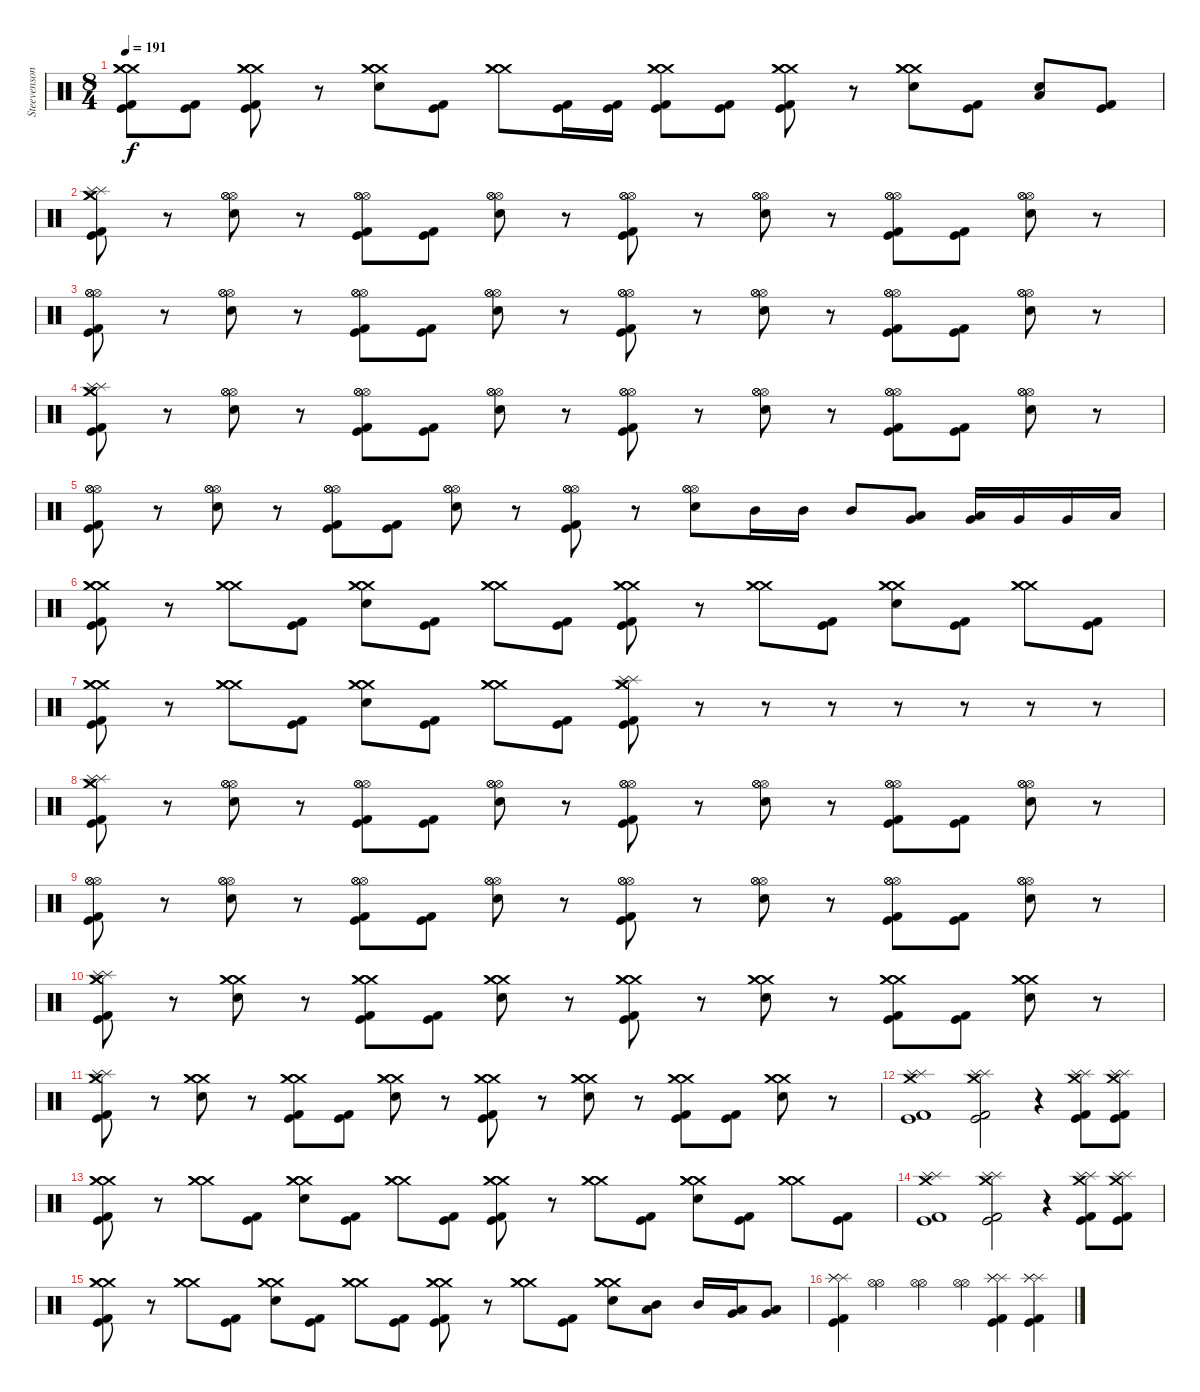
\track ("Steevenson" "Steevenson") {instrument percussion}
\staff {score}
\articulation defaults
\ts (8 4)
\tempo 191
\clef neutral
\ks c
("Crash medium (hit)" "Crash medium (hit)" "Crash medium (hit)" "Kick (hit)" "Kick (hit) 2").8{dy f} ("Kick (hit)" "Kick (hit) 2").8 ("Crash medium (hit)" "Crash medium (hit)" "Crash medium (hit)" "Kick (hit)" "Kick (hit) 2").8 r.8 ("Crash medium (hit)" "Crash medium (hit)" "Crash medium (hit)" "Snare (hit) 2").8 ("Kick (hit)" "Kick (hit) 2").8 ("Crash medium (hit)" "Crash medium (hit)" "Crash medium (hit)").8 ("Kick (hit)" "Kick (hit) 2").16 ("Kick (hit)" "Kick (hit) 2").16 ("Crash medium (hit)" "Crash medium (hit)" "Crash medium (hit)" "Kick (hit)" "Kick (hit) 2").8 ("Kick (hit)" "Kick (hit) 2").8 ("Crash medium (hit)" "Crash medium (hit)" "Crash medium (hit)" "Kick (hit)" "Kick (hit) 2").8 r.8 ("Crash medium (hit)" "Crash medium (hit)" "Crash medium (hit)" "Snare (hit) 2").8 ("Kick (hit)" "Kick (hit) 2").8 ("Low Tom (hit)" "Snare (hit) 2").8 ("Kick (hit)" "Kick (hit) 2").8 |
("Splash (hit)" "Crash medium (hit)" "Crash medium (hit)" "Splash (hit)" "Kick (hit)" "Kick (hit) 2").8 r.8 ("Hi-Hat (open)" "Hi-Hat (open)" "Hi-Hat (open)" "Snare (hit) 2").8 r.8 ("Hi-Hat (open)" "Hi-Hat (open)" "Hi-Hat (open)" "Kick (hit)" "Kick (hit) 2").8 ("Kick (hit)" "Kick (hit) 2").8 ("Hi-Hat (open)" "Hi-Hat (open)" "Hi-Hat (open)" "Snare (hit) 2").8 r.8 ("Hi-Hat (open)" "Hi-Hat (open)" "Hi-Hat (open)" "Kick (hit)" "Kick (hit) 2").8 r.8 ("Hi-Hat (open)" "Hi-Hat (open)" "Hi-Hat (open)" "Snare (hit) 2").8 r.8 ("Hi-Hat (open)" "Hi-Hat (open)" "Hi-Hat (open)" "Kick (hit)" "Kick (hit) 2").8 ("Kick (hit)" "Kick (hit) 2").8 ("Hi-Hat (open)" "Hi-Hat (open)" "Hi-Hat (open)" "Snare (hit) 2").8 r.8 |
("Hi-Hat (open)" "Hi-Hat (open)" "Hi-Hat (open)" "Kick (hit)" "Kick (hit) 2").8 r.8 ("Hi-Hat (open)" "Hi-Hat (open)" "Hi-Hat (open)" "Snare (hit) 2").8 r.8 ("Hi-Hat (open)" "Hi-Hat (open)" "Hi-Hat (open)" "Kick (hit)" "Kick (hit) 2").8 ("Kick (hit)" "Kick (hit) 2").8 ("Hi-Hat (open)" "Hi-Hat (open)" "Hi-Hat (open)" "Snare (hit) 2").8 r.8 ("Hi-Hat (open)" "Hi-Hat (open)" "Hi-Hat (open)" "Kick (hit)" "Kick (hit) 2").8 r.8 ("Hi-Hat (open)" "Hi-Hat (open)" "Hi-Hat (open)" "Snare (hit) 2").8 r.8 ("Hi-Hat (open)" "Hi-Hat (open)" "Hi-Hat (open)" "Kick (hit)" "Kick (hit) 2").8 ("Kick (hit)" "Kick (hit) 2").8 ("Hi-Hat (open)" "Hi-Hat (open)" "Hi-Hat (open)" "Snare (hit) 2").8 r.8 |
("Splash (hit)" "Crash medium (hit)" "Crash medium (hit)" "Splash (hit)" "Kick (hit)" "Kick (hit) 2").8 r.8 ("Hi-Hat (open)" "Hi-Hat (open)" "Hi-Hat (open)" "Snare (hit) 2").8 r.8 ("Hi-Hat (open)" "Hi-Hat (open)" "Hi-Hat (open)" "Kick (hit)" "Kick (hit) 2").8 ("Kick (hit)" "Kick (hit) 2").8 ("Hi-Hat (open)" "Hi-Hat (open)" "Hi-Hat (open)" "Snare (hit) 2").8 r.8 ("Hi-Hat (open)" "Hi-Hat (open)" "Hi-Hat (open)" "Kick (hit)" "Kick (hit) 2").8 r.8 ("Hi-Hat (open)" "Hi-Hat (open)" "Hi-Hat (open)" "Snare (hit) 2").8 r.8 ("Hi-Hat (open)" "Hi-Hat (open)" "Hi-Hat (open)" "Kick (hit)" "Kick (hit) 2").8 ("Kick (hit)" "Kick (hit) 2").8 ("Hi-Hat (open)" "Hi-Hat (open)" "Hi-Hat (open)" "Snare (hit) 2").8 r.8 |
("Hi-Hat (open)" "Hi-Hat (open)" "Hi-Hat (open)" "Kick (hit)" "Kick (hit) 2").8 r.8 ("Hi-Hat (open)" "Hi-Hat (open)" "Hi-Hat (open)" "Snare (hit) 2").8 r.8 ("Hi-Hat (open)" "Hi-Hat (open)" "Hi-Hat (open)" "Kick (hit)" "Kick (hit) 2").8 ("Kick (hit)" "Kick (hit) 2").8 ("Hi-Hat (open)" "Hi-Hat (open)" "Hi-Hat (open)" "Snare (hit) 2").8 r.8 ("Hi-Hat (open)" "Hi-Hat (open)" "Hi-Hat (open)" "Kick (hit)" "Kick (hit) 2").8 r.8 ("Hi-Hat (open)" "Hi-Hat (open)" "Hi-Hat (open)" "Snare (hit) 2").8 "Mid Tom (hit)".16 "Mid Tom (hit)".16 "Mid Tom (hit)".8 ("Low Tom (hit)" "Very Low Tom (hit)").8 ("Very Low Tom (hit)" "Low Tom (hit)").16 "Very Low Tom (hit)".16 "Very Low Tom (hit)".16 "Low Floor Tom (hit)".16 |
("Crash medium (hit)" "Crash medium (hit)" "Crash medium (hit)" "Kick (hit)" "Kick (hit) 2").8 r.8 ("Crash medium (hit)" "Crash medium (hit)" "Crash medium (hit)").8 ("Kick (hit)" "Kick (hit) 2").8 ("Crash medium (hit)" "Crash medium (hit)" "Crash medium (hit)" "Snare (hit) 2").8 ("Kick (hit)" "Kick (hit) 2").8 ("Crash medium (hit)" "Crash medium (hit)" "Crash medium (hit)").8 ("Kick (hit)" "Kick (hit) 2").8 ("Crash medium (hit)" "Crash medium (hit)" "Crash medium (hit)" "Kick (hit)" "Kick (hit) 2").8 r.8 ("Crash medium (hit)" "Crash medium (hit)" "Crash medium (hit)").8 ("Kick (hit)" "Kick (hit) 2").8 ("Crash medium (hit)" "Crash medium (hit)" "Crash medium (hit)" "Snare (hit) 2").8 ("Kick (hit)" "Kick (hit) 2").8 ("Crash medium (hit)" "Crash medium (hit)" "Crash medium (hit)").8 ("Kick (hit)" "Kick (hit) 2").8 |
("Crash medium (hit)" "Crash medium (hit)" "Crash medium (hit)" "Kick (hit)" "Kick (hit) 2").8 r.8 ("Crash medium (hit)" "Crash medium (hit)" "Crash medium (hit)").8 ("Kick (hit)" "Kick (hit) 2").8 ("Crash medium (hit)" "Crash medium (hit)" "Crash medium (hit)" "Snare (hit) 2").8 ("Kick (hit)" "Kick (hit) 2").8 ("Crash medium (hit)" "Crash medium (hit)" "Crash medium (hit)").8 ("Kick (hit)" "Kick (hit) 2").8 ("Crash medium (hit)" "Crash medium (hit)" "Splash (hit)" "Splash (hit)" "Kick (hit)" "Kick (hit) 2").8 r.8 r.8 r.8 r.8 r.8 r.8 r.8 |
("Splash (hit)" "Crash medium (hit)" "Crash medium (hit)" "Splash (hit)" "Kick (hit)" "Kick (hit) 2").8 r.8 ("Hi-Hat (open)" "Hi-Hat (open)" "Hi-Hat (open)" "Snare (hit) 2").8 r.8 ("Hi-Hat (open)" "Hi-Hat (open)" "Hi-Hat (open)" "Kick (hit)" "Kick (hit) 2").8 ("Kick (hit)" "Kick (hit) 2").8 ("Hi-Hat (open)" "Hi-Hat (open)" "Hi-Hat (open)" "Snare (hit) 2").8 r.8 ("Hi-Hat (open)" "Hi-Hat (open)" "Hi-Hat (open)" "Kick (hit)" "Kick (hit) 2").8 r.8 ("Hi-Hat (open)" "Hi-Hat (open)" "Hi-Hat (open)" "Snare (hit) 2").8 r.8 ("Hi-Hat (open)" "Hi-Hat (open)" "Hi-Hat (open)" "Kick (hit)" "Kick (hit) 2").8 ("Kick (hit)" "Kick (hit) 2").8 ("Hi-Hat (open)" "Hi-Hat (open)" "Hi-Hat (open)" "Snare (hit) 2").8 r.8 |
("Hi-Hat (open)" "Hi-Hat (open)" "Hi-Hat (open)" "Kick (hit)" "Kick (hit) 2").8 r.8 ("Hi-Hat (open)" "Hi-Hat (open)" "Hi-Hat (open)" "Snare (hit) 2").8 r.8 ("Hi-Hat (open)" "Hi-Hat (open)" "Hi-Hat (open)" "Kick (hit)" "Kick (hit) 2").8 ("Kick (hit)" "Kick (hit) 2").8 ("Hi-Hat (open)" "Hi-Hat (open)" "Hi-Hat (open)" "Snare (hit) 2").8 r.8 ("Hi-Hat (open)" "Hi-Hat (open)" "Hi-Hat (open)" "Kick (hit)" "Kick (hit) 2").8 r.8 ("Hi-Hat (open)" "Hi-Hat (open)" "Hi-Hat (open)" "Snare (hit) 2").8 r.8 ("Hi-Hat (open)" "Hi-Hat (open)" "Hi-Hat (open)" "Kick (hit)" "Kick (hit) 2").8 ("Kick (hit)" "Kick (hit) 2").8 ("Hi-Hat (open)" "Hi-Hat (open)" "Hi-Hat (open)" "Snare (hit) 2").8 r.8 |
("Splash (hit)" "Crash medium (hit)" "Crash medium (hit)" "Splash (hit)" "Kick (hit)" "Kick (hit) 2").8 r.8 ("Crash medium (hit)" "Crash medium (hit)" "Crash medium (hit)" "Snare (hit) 2").8 r.8 ("Crash medium (hit)" "Crash medium (hit)" "Crash medium (hit)" "Kick (hit)" "Kick (hit) 2").8 ("Kick (hit)" "Kick (hit) 2").8 ("Crash medium (hit)" "Crash medium (hit)" "Crash medium (hit)" "Snare (hit) 2").8 r.8 ("Crash medium (hit)" "Crash medium (hit)" "Crash medium (hit)" "Kick (hit)" "Kick (hit) 2").8 r.8 ("Crash medium (hit)" "Crash medium (hit)" "Crash medium (hit)" "Snare (hit) 2").8 r.8 ("Crash medium (hit)" "Crash medium (hit)" "Crash medium (hit)" "Kick (hit)" "Kick (hit) 2").8 ("Kick (hit)" "Kick (hit) 2").8 ("Crash medium (hit)" "Crash medium (hit)" "Crash medium (hit)" "Snare (hit) 2").8 r.8 |
("Splash (hit)" "Crash medium (hit)" "Crash medium (hit)" "Splash (hit)" "Kick (hit)" "Kick (hit) 2").8 r.8 ("Crash medium (hit)" "Crash medium (hit)" "Crash medium (hit)" "Snare (hit) 2").8 r.8 ("Crash medium (hit)" "Crash medium (hit)" "Crash medium (hit)" "Kick (hit)" "Kick (hit) 2").8 ("Kick (hit)" "Kick (hit) 2").8 ("Crash medium (hit)" "Crash medium (hit)" "Crash medium (hit)" "Snare (hit) 2").8 r.8 ("Crash medium (hit)" "Crash medium (hit)" "Crash medium (hit)" "Kick (hit)" "Kick (hit) 2").8 r.8 ("Crash medium (hit)" "Crash medium (hit)" "Crash medium (hit)" "Snare (hit) 2").8 r.8 ("Crash medium (hit)" "Crash medium (hit)" "Crash medium (hit)" "Kick (hit)" "Kick (hit) 2").8 ("Kick (hit)" "Kick (hit) 2").8 ("Crash medium (hit)" "Crash medium (hit)" "Crash medium (hit)" "Snare (hit) 2").8 r.8 |
("Crash medium (hit)" "Splash (hit)" "Splash (hit)" "Kick (hit)" "Kick (hit) 2").1 ("Crash medium (hit)" "Splash (hit)" "Splash (hit)" "Kick (hit)" "Kick (hit) 2").2 r.4 ("Crash medium (hit)" "Splash (hit)" "Splash (hit)" "Kick (hit)" "Kick (hit) 2").8 ("Crash medium (hit)" "Splash (hit)" "Splash (hit)" "Kick (hit)" "Kick (hit) 2").8 |
("Crash medium (hit)" "Crash medium (hit)" "Crash medium (hit)" "Kick (hit)" "Kick (hit) 2").8 r.8 ("Crash medium (hit)" "Crash medium (hit)" "Crash medium (hit)").8 ("Kick (hit)" "Kick (hit) 2").8 ("Crash medium (hit)" "Crash medium (hit)" "Crash medium (hit)" "Snare (hit) 2").8 ("Kick (hit)" "Kick (hit) 2").8 ("Crash medium (hit)" "Crash medium (hit)" "Crash medium (hit)").8 ("Kick (hit)" "Kick (hit) 2").8 ("Crash medium (hit)" "Crash medium (hit)" "Crash medium (hit)" "Kick (hit)" "Kick (hit) 2").8 r.8 ("Crash medium (hit)" "Crash medium (hit)" "Crash medium (hit)").8 ("Kick (hit)" "Kick (hit) 2").8 ("Crash medium (hit)" "Crash medium (hit)" "Crash medium (hit)" "Snare (hit) 2").8 ("Kick (hit)" "Kick (hit) 2").8 ("Crash medium (hit)" "Crash medium (hit)" "Crash medium (hit)").8 ("Kick (hit)" "Kick (hit) 2").8 |
("Crash medium (hit)" "Splash (hit)" "Splash (hit)" "Kick (hit)" "Kick (hit) 2").1 ("Crash medium (hit)" "Splash (hit)" "Splash (hit)" "Kick (hit)" "Kick (hit) 2").2 r.4 ("Crash medium (hit)" "Splash (hit)" "Splash (hit)" "Kick (hit)" "Kick (hit) 2").8 ("Crash medium (hit)" "Splash (hit)" "Splash (hit)" "Kick (hit)" "Kick (hit) 2").8 |
("Crash medium (hit)" "Crash medium (hit)" "Crash medium (hit)" "Kick (hit)" "Kick (hit) 2").8 r.8 ("Crash medium (hit)" "Crash medium (hit)" "Crash medium (hit)").8 ("Kick (hit)" "Kick (hit) 2").8 ("Crash medium (hit)" "Crash medium (hit)" "Crash medium (hit)" "Snare (hit) 2").8 ("Kick (hit)" "Kick (hit) 2").8 ("Crash medium (hit)" "Crash medium (hit)" "Crash medium (hit)").8 ("Kick (hit)" "Kick (hit) 2").8 ("Crash medium (hit)" "Crash medium (hit)" "Crash medium (hit)" "Kick (hit)" "Kick (hit) 2").8 r.8 ("Crash medium (hit)" "Crash medium (hit)" "Crash medium (hit)").8 ("Kick (hit)" "Kick (hit) 2").8 ("Crash medium (hit)" "Crash medium (hit)" "Crash medium (hit)" "Snare (hit) 2").8 ("Mid Tom (hit)" "Low Tom (hit)").8 "Mid Tom (hit)".16 ("Very Low Tom (hit)" "Low Tom (hit)").16 ("Low Floor Tom (hit)" "Very Low Tom (hit)").8 |
("Splash (hit)" "Splash (hit)" "Splash (hit)" "Kick (hit)" "Kick (hit) 2").4 ("Hi-Hat (open)" "Hi-Hat (open)").2 ("Hi-Hat (open)" "Hi-Hat (open)").2 ("Hi-Hat (open)" "Hi-Hat (open)").4 ("Splash (hit)" "Splash (hit)" "Splash (hit)" "Kick (hit)" "Kick (hit) 2").4 ("Splash (hit)" "Splash (hit)" "Splash (hit)" "Kick (hit)" "Kick (hit) 2").4
